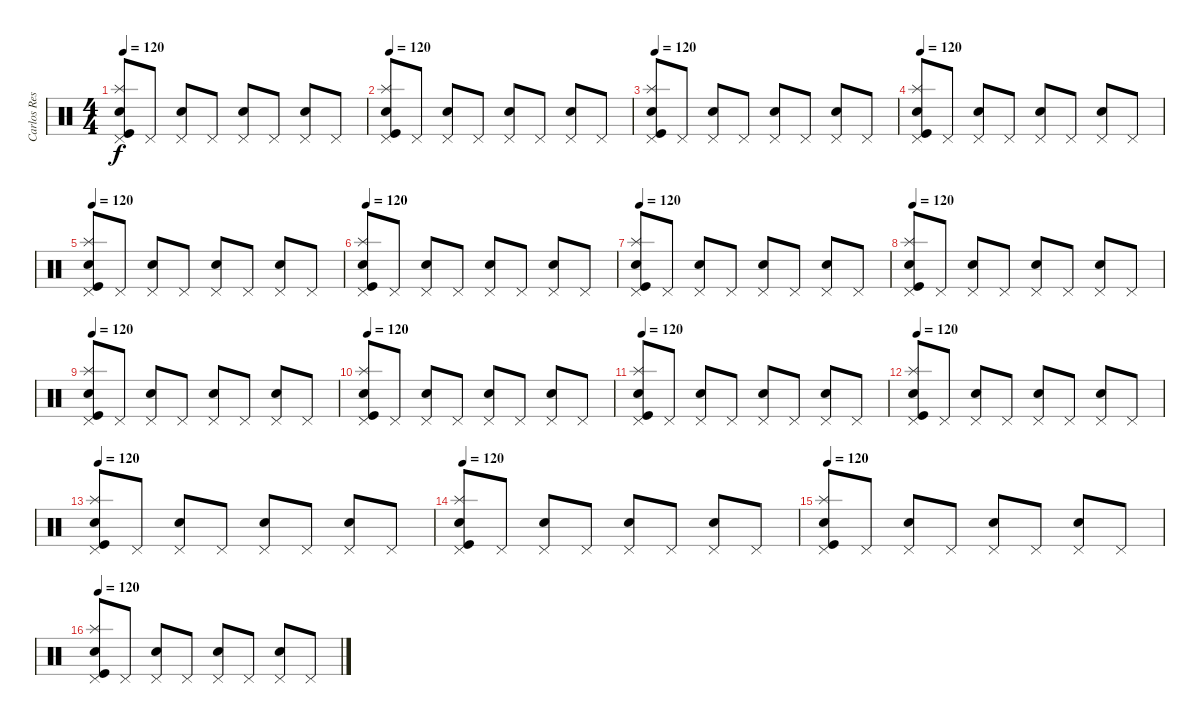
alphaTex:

\track ("Carlos Restrepo" "Carlos Res") {instrument percussion}
\staff {score}
\articulation defaults
\ts (4 4)
\tempo 120
\clef neutral
\ks c
("Pedal Hi-Hat (hit)" "Kick (hit)" "Splash (hit)" "Snare (hit) 2").8{dy f} "Pedal Hi-Hat (hit)".8 ("Pedal Hi-Hat (hit)" "Snare (hit) 2").8 "Pedal Hi-Hat (hit)".8 ("Pedal Hi-Hat (hit)" "Snare (hit) 2").8 "Pedal Hi-Hat (hit)".8 ("Pedal Hi-Hat (hit)" "Snare (hit) 2").8 "Pedal Hi-Hat (hit)".8 |
\tempo 120
("Pedal Hi-Hat (hit)" "Kick (hit)" "Splash (hit)" "Snare (hit) 2").8 "Pedal Hi-Hat (hit)".8 ("Pedal Hi-Hat (hit)" "Snare (hit) 2").8 "Pedal Hi-Hat (hit)".8 ("Pedal Hi-Hat (hit)" "Snare (hit) 2").8 "Pedal Hi-Hat (hit)".8 ("Pedal Hi-Hat (hit)" "Snare (hit) 2").8 "Pedal Hi-Hat (hit)".8 |
\tempo 120
("Pedal Hi-Hat (hit)" "Kick (hit)" "Splash (hit)" "Snare (hit) 2").8 "Pedal Hi-Hat (hit)".8 ("Pedal Hi-Hat (hit)" "Snare (hit) 2").8 "Pedal Hi-Hat (hit)".8 ("Pedal Hi-Hat (hit)" "Snare (hit) 2").8 "Pedal Hi-Hat (hit)".8 ("Pedal Hi-Hat (hit)" "Snare (hit) 2").8 "Pedal Hi-Hat (hit)".8 |
\tempo 120
("Pedal Hi-Hat (hit)" "Kick (hit)" "Splash (hit)" "Snare (hit) 2").8 "Pedal Hi-Hat (hit)".8 ("Pedal Hi-Hat (hit)" "Snare (hit) 2").8 "Pedal Hi-Hat (hit)".8 ("Pedal Hi-Hat (hit)" "Snare (hit) 2").8 "Pedal Hi-Hat (hit)".8 ("Pedal Hi-Hat (hit)" "Snare (hit) 2").8 "Pedal Hi-Hat (hit)".8 |
\tempo 120
("Pedal Hi-Hat (hit)" "Kick (hit)" "Splash (hit)" "Snare (hit) 2").8 "Pedal Hi-Hat (hit)".8 ("Pedal Hi-Hat (hit)" "Snare (hit) 2").8 "Pedal Hi-Hat (hit)".8 ("Pedal Hi-Hat (hit)" "Snare (hit) 2").8 "Pedal Hi-Hat (hit)".8 ("Pedal Hi-Hat (hit)" "Snare (hit) 2").8 "Pedal Hi-Hat (hit)".8 |
\tempo 120
("Pedal Hi-Hat (hit)" "Kick (hit)" "Splash (hit)" "Snare (hit) 2").8 "Pedal Hi-Hat (hit)".8 ("Pedal Hi-Hat (hit)" "Snare (hit) 2").8 "Pedal Hi-Hat (hit)".8 ("Pedal Hi-Hat (hit)" "Snare (hit) 2").8 "Pedal Hi-Hat (hit)".8 ("Pedal Hi-Hat (hit)" "Snare (hit) 2").8 "Pedal Hi-Hat (hit)".8 |
\tempo 120
("Pedal Hi-Hat (hit)" "Kick (hit)" "Splash (hit)" "Snare (hit) 2").8 "Pedal Hi-Hat (hit)".8 ("Pedal Hi-Hat (hit)" "Snare (hit) 2").8 "Pedal Hi-Hat (hit)".8 ("Pedal Hi-Hat (hit)" "Snare (hit) 2").8 "Pedal Hi-Hat (hit)".8 ("Pedal Hi-Hat (hit)" "Snare (hit) 2").8 "Pedal Hi-Hat (hit)".8 |
\tempo 120
("Pedal Hi-Hat (hit)" "Kick (hit)" "Splash (hit)" "Snare (hit) 2").8 "Pedal Hi-Hat (hit)".8 ("Pedal Hi-Hat (hit)" "Snare (hit) 2").8 "Pedal Hi-Hat (hit)".8 ("Pedal Hi-Hat (hit)" "Snare (hit) 2").8 "Pedal Hi-Hat (hit)".8 ("Pedal Hi-Hat (hit)" "Snare (hit) 2").8 "Pedal Hi-Hat (hit)".8 |
\tempo 120
("Pedal Hi-Hat (hit)" "Kick (hit)" "Splash (hit)" "Snare (hit) 2").8 "Pedal Hi-Hat (hit)".8 ("Pedal Hi-Hat (hit)" "Snare (hit) 2").8 "Pedal Hi-Hat (hit)".8 ("Pedal Hi-Hat (hit)" "Snare (hit) 2").8 "Pedal Hi-Hat (hit)".8 ("Pedal Hi-Hat (hit)" "Snare (hit) 2").8 "Pedal Hi-Hat (hit)".8 |
\tempo 120
("Pedal Hi-Hat (hit)" "Kick (hit)" "Splash (hit)" "Snare (hit) 2").8 "Pedal Hi-Hat (hit)".8 ("Pedal Hi-Hat (hit)" "Snare (hit) 2").8 "Pedal Hi-Hat (hit)".8 ("Pedal Hi-Hat (hit)" "Snare (hit) 2").8 "Pedal Hi-Hat (hit)".8 ("Pedal Hi-Hat (hit)" "Snare (hit) 2").8 "Pedal Hi-Hat (hit)".8 |
\tempo 120
("Pedal Hi-Hat (hit)" "Kick (hit)" "Splash (hit)" "Snare (hit) 2").8 "Pedal Hi-Hat (hit)".8 ("Pedal Hi-Hat (hit)" "Snare (hit) 2").8 "Pedal Hi-Hat (hit)".8 ("Pedal Hi-Hat (hit)" "Snare (hit) 2").8 "Pedal Hi-Hat (hit)".8 ("Pedal Hi-Hat (hit)" "Snare (hit) 2").8 "Pedal Hi-Hat (hit)".8 |
\tempo 120
("Pedal Hi-Hat (hit)" "Kick (hit)" "Splash (hit)" "Snare (hit) 2").8 "Pedal Hi-Hat (hit)".8 ("Pedal Hi-Hat (hit)" "Snare (hit) 2").8 "Pedal Hi-Hat (hit)".8 ("Pedal Hi-Hat (hit)" "Snare (hit) 2").8 "Pedal Hi-Hat (hit)".8 ("Pedal Hi-Hat (hit)" "Snare (hit) 2").8 "Pedal Hi-Hat (hit)".8 |
\tempo 120
("Pedal Hi-Hat (hit)" "Kick (hit)" "Splash (hit)" "Snare (hit) 2").8 "Pedal Hi-Hat (hit)".8 ("Pedal Hi-Hat (hit)" "Snare (hit) 2").8 "Pedal Hi-Hat (hit)".8 ("Pedal Hi-Hat (hit)" "Snare (hit) 2").8 "Pedal Hi-Hat (hit)".8 ("Pedal Hi-Hat (hit)" "Snare (hit) 2").8 "Pedal Hi-Hat (hit)".8 |
\tempo 120
("Pedal Hi-Hat (hit)" "Kick (hit)" "Splash (hit)" "Snare (hit) 2").8 "Pedal Hi-Hat (hit)".8 ("Pedal Hi-Hat (hit)" "Snare (hit) 2").8 "Pedal Hi-Hat (hit)".8 ("Pedal Hi-Hat (hit)" "Snare (hit) 2").8 "Pedal Hi-Hat (hit)".8 ("Pedal Hi-Hat (hit)" "Snare (hit) 2").8 "Pedal Hi-Hat (hit)".8 |
\tempo 120
("Pedal Hi-Hat (hit)" "Kick (hit)" "Splash (hit)" "Snare (hit) 2").8 "Pedal Hi-Hat (hit)".8 ("Pedal Hi-Hat (hit)" "Snare (hit) 2").8 "Pedal Hi-Hat (hit)".8 ("Pedal Hi-Hat (hit)" "Snare (hit) 2").8 "Pedal Hi-Hat (hit)".8 ("Pedal Hi-Hat (hit)" "Snare (hit) 2").8 "Pedal Hi-Hat (hit)".8 |
\tempo 120
("Pedal Hi-Hat (hit)" "Kick (hit)" "Splash (hit)" "Snare (hit) 2").8 "Pedal Hi-Hat (hit)".8 ("Pedal Hi-Hat (hit)" "Snare (hit) 2").8 "Pedal Hi-Hat (hit)".8 ("Pedal Hi-Hat (hit)" "Snare (hit) 2").8 "Pedal Hi-Hat (hit)".8 ("Pedal Hi-Hat (hit)" "Snare (hit) 2").8 "Pedal Hi-Hat (hit)".8
